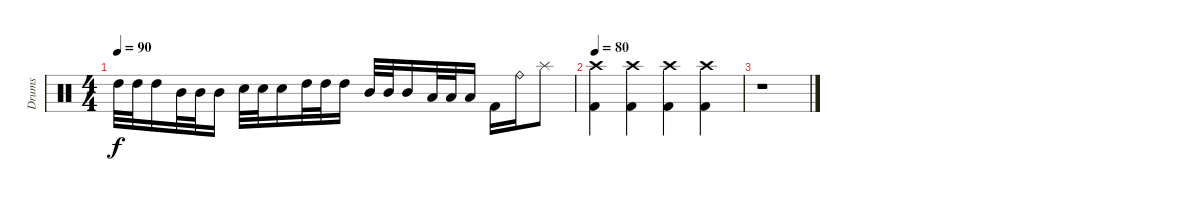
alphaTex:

\track ("Drums" "Drums") {instrument percussion}
\staff {score}
\articulation defaults
\ts (4 4)
\tempo 90
\clef neutral
\ks c "High Tom (hit)".32{dy f} "High Tom (hit)".32 "High Tom (hit)".16 "Mid Tom (hit)".32 "Mid Tom (hit)".32 "Mid Tom (hit)".16 "Electric Snare (hit)".32 "Electric Snare (hit)".32 "Electric Snare (hit)".16 "High Tom (hit)".32 "High Tom (hit)".32 "High Tom (hit)".16 "Mid Tom (hit)".32 "Mid Tom (hit)".32 "Mid Tom (hit)".16 "Low Tom (hit)".32 "Low Tom (hit)".32 "Low Tom (hit)".16 "Kick (hit) 2".16 "Ride (bell)".16 "Splash (hit)".8
|
\tempo 80
("Crash high (hit)" "Kick (hit) 2").4 ("Crash high (hit)" "Kick (hit) 2").4 ("Crash high (hit)" "Kick (hit) 2").4 ("Crash high (hit)" "Kick (hit) 2").4 |
r.1
